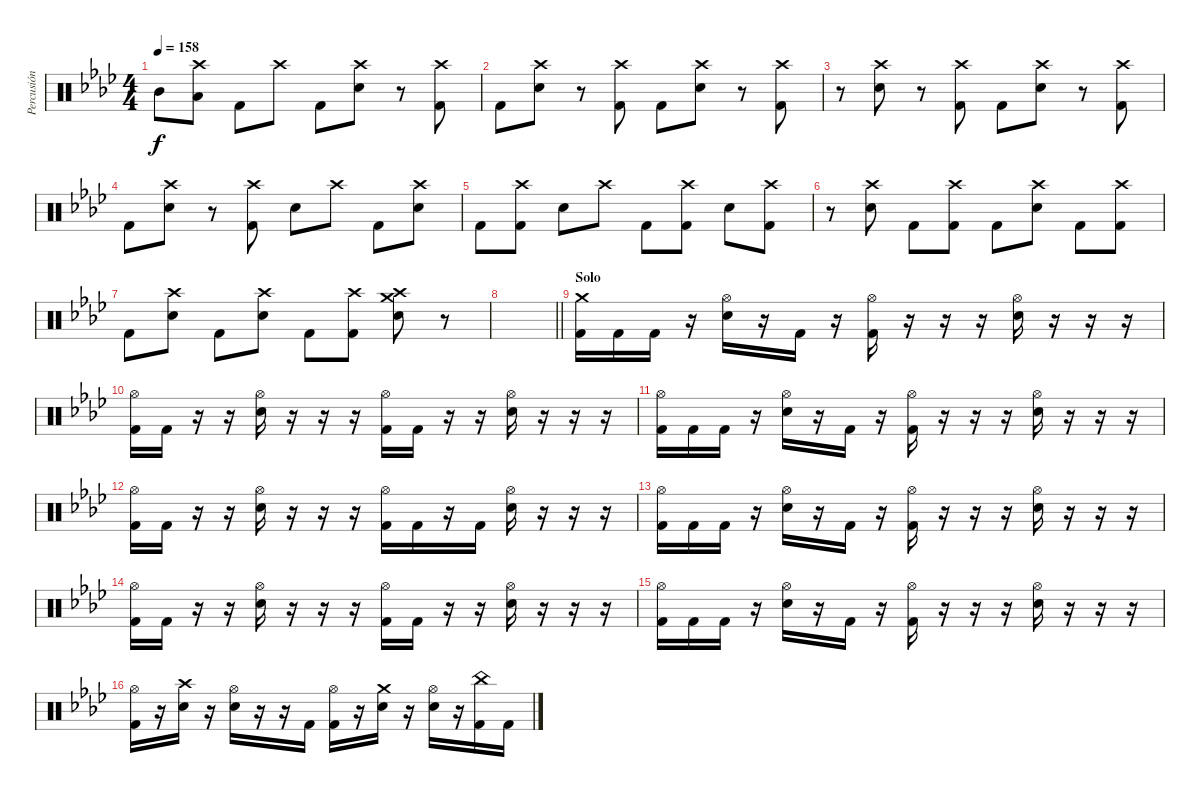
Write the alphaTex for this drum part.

\track ("Percusión" "Percusión") {instrument percussion}
\staff {score}
\articulation defaults
\ts (4 4)
\tempo 158
\clef neutral
\ks ab "Mid Tom (hit)".8{dy f}
("Crash high (hit)" "Low Tom (hit)").8 "Kick (hit) 2".8 "Crash high (hit)".8 "Kick (hit) 2".8 ("Crash high (hit)" "Snare (hit) 2").8 r.8 ("Crash high (hit)" "Kick (hit) 2").8 |
"Kick (hit) 2".8 ("Crash high (hit)" "Snare (hit) 2").8 r.8 ("Crash high (hit)" "Kick (hit) 2").8 "Kick (hit) 2".8 ("Crash high (hit)" "Snare (hit) 2").8 r.8 ("Crash high (hit)" "Kick (hit) 2").8 |
r.8 ("Crash high (hit)" "Snare (hit) 2").8 r.8 ("Crash high (hit)" "Kick (hit) 2").8 "Kick (hit) 2".8 ("Crash high (hit)" "Snare (hit) 2").8 r.8 ("Crash high (hit)" "Kick (hit) 2").8 |
"Kick (hit) 2".8 ("Crash high (hit)" "Snare (hit) 2").8 r.8 ("Crash high (hit)" "Kick (hit) 2").8 "Snare (hit) 2".8 "Crash high (hit)".8 "Kick (hit) 2".8 ("Crash high (hit)" "Snare (hit) 2").8 |
"Kick (hit) 2".8 ("Crash high (hit)" "Kick (hit) 2").8 "Snare (hit) 2".8 "Crash high (hit)".8 "Kick (hit) 2".8 ("Crash high (hit)" "Kick (hit) 2").8 "Snare (hit) 2".8 ("Crash high (hit)" "Kick (hit) 2").8 |
r.8 ("Crash high (hit)" "Snare (hit) 2").8 "Kick (hit) 2".8 ("Crash high (hit)" "Kick (hit) 2").8 "Kick (hit) 2".8 ("Crash high (hit)" "Snare (hit) 2").8 "Kick (hit) 2".8 ("Crash high (hit)" "Kick (hit) 2").8 |
"Kick (hit) 2".8 ("Crash high (hit)" "Snare (hit) 2").8 "Kick (hit) 2".8 ("Crash high (hit)" "Snare (hit) 2").8 "Kick (hit) 2".8 ("Crash high (hit)" "Kick (hit) 2").8 ("Crash medium (hit)" "Snare (hit) 2" "Crash high (hit)").8 r.8 |
\barLineRight lightlight
|
\section ("" "Solo")
("Crash medium (hit)" "Kick (hit) 2").16 "Kick (hit) 2".16 "Kick (hit) 2".16 r.16 ("Hi-Hat (open)" "Electric Snare (hit)").16 r.16 "Kick (hit) 2".16 r.16 ("Hi-Hat (open)" "Kick (hit) 2").16 r.16 r.16 r.16 ("Hi-Hat (open)" "Electric Snare (hit)").16 r.16 r.16 r.16 |
("Hi-Hat (open)" "Kick (hit) 2").16 "Kick (hit) 2".16 r.16 r.16 ("Hi-Hat (open)" "Electric Snare (hit)").16 r.16 r.16 r.16 ("Hi-Hat (open)" "Kick (hit) 2").16 "Kick (hit) 2".16 r.16 r.16 ("Hi-Hat (open)" "Electric Snare (hit)").16 r.16 r.16 r.16 |
("Hi-Hat (open)" "Kick (hit) 2").16 "Kick (hit) 2".16 "Kick (hit) 2".16 r.16 ("Hi-Hat (open)" "Electric Snare (hit)").16 r.16 "Kick (hit) 2".16 r.16 ("Hi-Hat (open)" "Kick (hit) 2").16 r.16 r.16 r.16 ("Hi-Hat (open)" "Electric Snare (hit)").16 r.16 r.16 r.16 |
("Hi-Hat (open)" "Kick (hit) 2").16 "Kick (hit) 2".16 r.16 r.16 ("Hi-Hat (open)" "Electric Snare (hit)").16 r.16 r.16 r.16 ("Hi-Hat (open)" "Kick (hit) 2").16 "Kick (hit) 2".16 r.16 "Kick (hit) 2".16 ("Hi-Hat (open)" "Electric Snare (hit)").16 r.16 r.16 r.16 |
("Hi-Hat (open)" "Kick (hit) 2").16 "Kick (hit) 2".16 "Kick (hit) 2".16 r.16 ("Hi-Hat (open)" "Electric Snare (hit)").16 r.16 "Kick (hit) 2".16 r.16 ("Hi-Hat (open)" "Kick (hit) 2").16 r.16 r.16 r.16 ("Hi-Hat (open)" "Electric Snare (hit)").16 r.16 r.16 r.16 |
("Hi-Hat (open)" "Kick (hit) 2").16 "Kick (hit) 2".16 r.16 r.16 ("Hi-Hat (open)" "Electric Snare (hit)").16 r.16 r.16 r.16 ("Hi-Hat (open)" "Kick (hit) 2").16 "Kick (hit) 2".16 r.16 r.16 ("Hi-Hat (open)" "Electric Snare (hit)").16 r.16 r.16 r.16 |
("Hi-Hat (open)" "Kick (hit) 2").16 "Kick (hit) 2".16 "Kick (hit) 2".16 r.16 ("Hi-Hat (open)" "Electric Snare (hit)").16 r.16 "Kick (hit) 2".16 r.16 ("Hi-Hat (open)" "Kick (hit) 2").16 r.16 r.16 r.16 ("Hi-Hat (open)" "Electric Snare (hit)").16 r.16 r.16 r.16 |
("Hi-Hat (open)" "Kick (hit) 2").16 r.16 ("Crash high (hit)" "Electric Snare (hit)").16 r.16 ("Hi-Hat (open)" "Electric Snare (hit)").16 r.16 r.16 "Kick (hit) 2".16 ("Hi-Hat (open)" "Kick (hit) 2").16 r.16 ("Crash medium (hit)" "Electric Snare (hit)").16 r.16 ("Hi-Hat (open)" "Electric Snare (hit)").16 r.16 ("China (hit)" "Kick (hit) 2").16 "Kick (hit) 2".16
